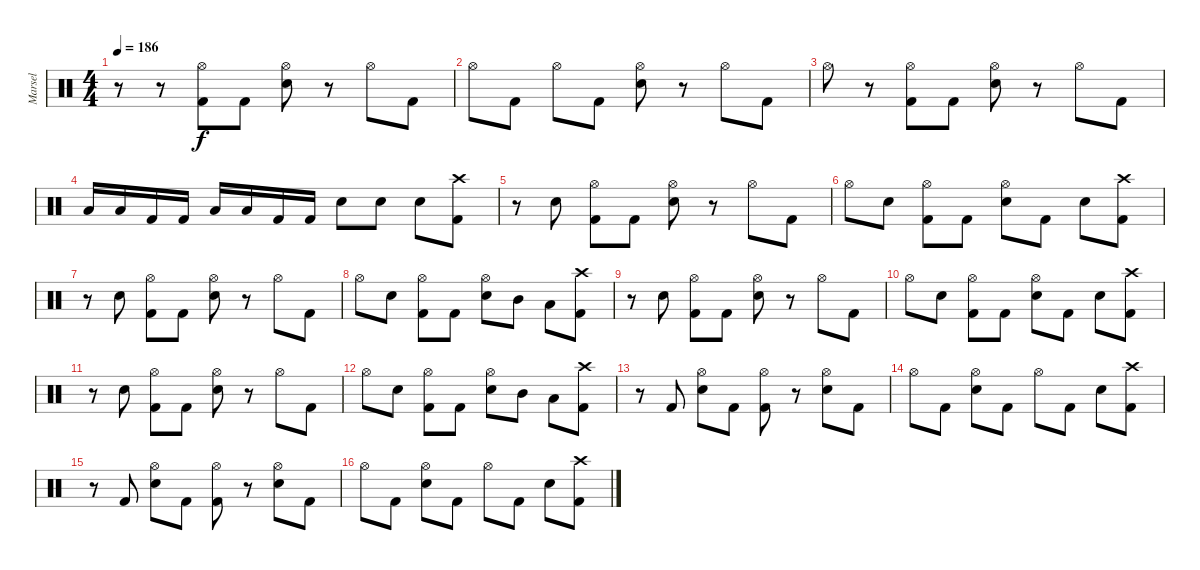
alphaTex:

\track ("Marsel" "Marsel") {mute instrument percussion}
\staff {score}
\articulation defaults
\ts (4 4)
\tempo 186
\clef neutral
\ks c
r.8{dy f} r.8 ("Hi-Hat (open)" "Kick (hit) 2").8 "Kick (hit) 2".8 ("Hi-Hat (open)" "Snare (hit) 2").8 r.8 "Hi-Hat (open)".8 "Kick (hit) 2".8 |
"Hi-Hat (open)".8 "Kick (hit) 2".8 "Hi-Hat (open)".8 "Kick (hit) 2".8 ("Hi-Hat (open)" "Snare (hit) 2").8 r.8 "Hi-Hat (open)".8 "Kick (hit) 2".8 |
"Hi-Hat (open)".8 r.8 ("Hi-Hat (open)" "Kick (hit) 2").8 "Kick (hit) 2".8 ("Hi-Hat (open)" "Snare (hit) 2").8 r.8 "Hi-Hat (open)".8 "Kick (hit) 2".8 |
"Low Tom (hit)".16 "Low Tom (hit)".16 "Kick (hit) 2".16 "Kick (hit) 2".16 "Low Floor Tom (hit)".16 "Low Floor Tom (hit)".16 "Kick (hit) 2".16 "Kick (hit) 2".16 "Snare (hit) 2".8 "Snare (hit) 2".8 "Snare (hit) 2".8 ("Crash high (hit)" "Kick (hit) 2").8 |
r.8 "Snare (hit) 2".8 ("Hi-Hat (open)" "Kick (hit) 2").8 "Kick (hit) 2".8 ("Hi-Hat (open)" "Snare (hit) 2").8 r.8 "Hi-Hat (open)".8 "Kick (hit) 2".8 |
"Hi-Hat (open)".8 "Snare (hit) 2".8 ("Hi-Hat (open)" "Kick (hit) 2").8 "Kick (hit) 2".8 ("Hi-Hat (open)" "Snare (hit) 2").8 "Kick (hit) 2".8 "Snare (hit) 2".8 ("Crash high (hit)" "Kick (hit) 2").8 |
r.8 "Snare (hit) 2".8 ("Hi-Hat (open)" "Kick (hit) 2").8 "Kick (hit) 2".8 ("Hi-Hat (open)" "Snare (hit) 2").8 r.8 "Hi-Hat (open)".8 "Kick (hit) 2".8 |
"Hi-Hat (open)".8 "Snare (hit) 2".8 ("Hi-Hat (open)" "Kick (hit) 2").8 "Kick (hit) 2".8 ("Hi-Hat (open)" "Snare (hit) 2").8 "Mid Tom (hit)".8 "Low Tom (hit)".8 ("Crash high (hit)" "Kick (hit) 2").8 |
r.8 "Snare (hit) 2".8 ("Hi-Hat (open)" "Kick (hit) 2").8 "Kick (hit) 2".8 ("Hi-Hat (open)" "Snare (hit) 2").8 r.8 "Hi-Hat (open)".8 "Kick (hit) 2".8 |
"Hi-Hat (open)".8 "Snare (hit) 2".8 ("Hi-Hat (open)" "Kick (hit) 2").8 "Kick (hit) 2".8 ("Hi-Hat (open)" "Snare (hit) 2").8 "Kick (hit) 2".8 "Snare (hit) 2".8 ("Crash high (hit)" "Kick (hit) 2").8 |
r.8 "Snare (hit) 2".8 ("Hi-Hat (open)" "Kick (hit) 2").8 "Kick (hit) 2".8 ("Hi-Hat (open)" "Snare (hit) 2").8 r.8 "Hi-Hat (open)".8 "Kick (hit) 2".8 |
"Hi-Hat (open)".8 "Snare (hit) 2".8 ("Hi-Hat (open)" "Kick (hit) 2").8 "Kick (hit) 2".8 ("Hi-Hat (open)" "Snare (hit) 2").8 "Mid Tom (hit)".8 "Low Tom (hit)".8 ("Crash high (hit)" "Kick (hit) 2").8 |
r.8 "Kick (hit) 2".8 ("Hi-Hat (open)" "Snare (hit) 2").8 "Kick (hit) 2".8 ("Hi-Hat (open)" "Kick (hit) 2").8 r.8 ("Hi-Hat (open)" "Snare (hit) 2").8 "Kick (hit) 2".8 |
"Hi-Hat (open)".8 "Kick (hit) 2".8 ("Hi-Hat (open)" "Snare (hit) 2").8 "Kick (hit) 2".8 "Hi-Hat (open)".8 "Kick (hit) 2".8 "Snare (hit) 2".8 ("Crash high (hit)" "Kick (hit) 2").8 |
r.8 "Kick (hit) 2".8 ("Hi-Hat (open)" "Snare (hit) 2").8 "Kick (hit) 2".8 ("Hi-Hat (open)" "Kick (hit) 2").8 r.8 ("Hi-Hat (open)" "Snare (hit) 2").8 "Kick (hit) 2".8 |
"Hi-Hat (open)".8 "Kick (hit) 2".8 ("Hi-Hat (open)" "Snare (hit) 2").8 "Kick (hit) 2".8 "Hi-Hat (open)".8 "Kick (hit) 2".8 "Snare (hit) 2".8 ("Crash high (hit)" "Kick (hit) 2").8
